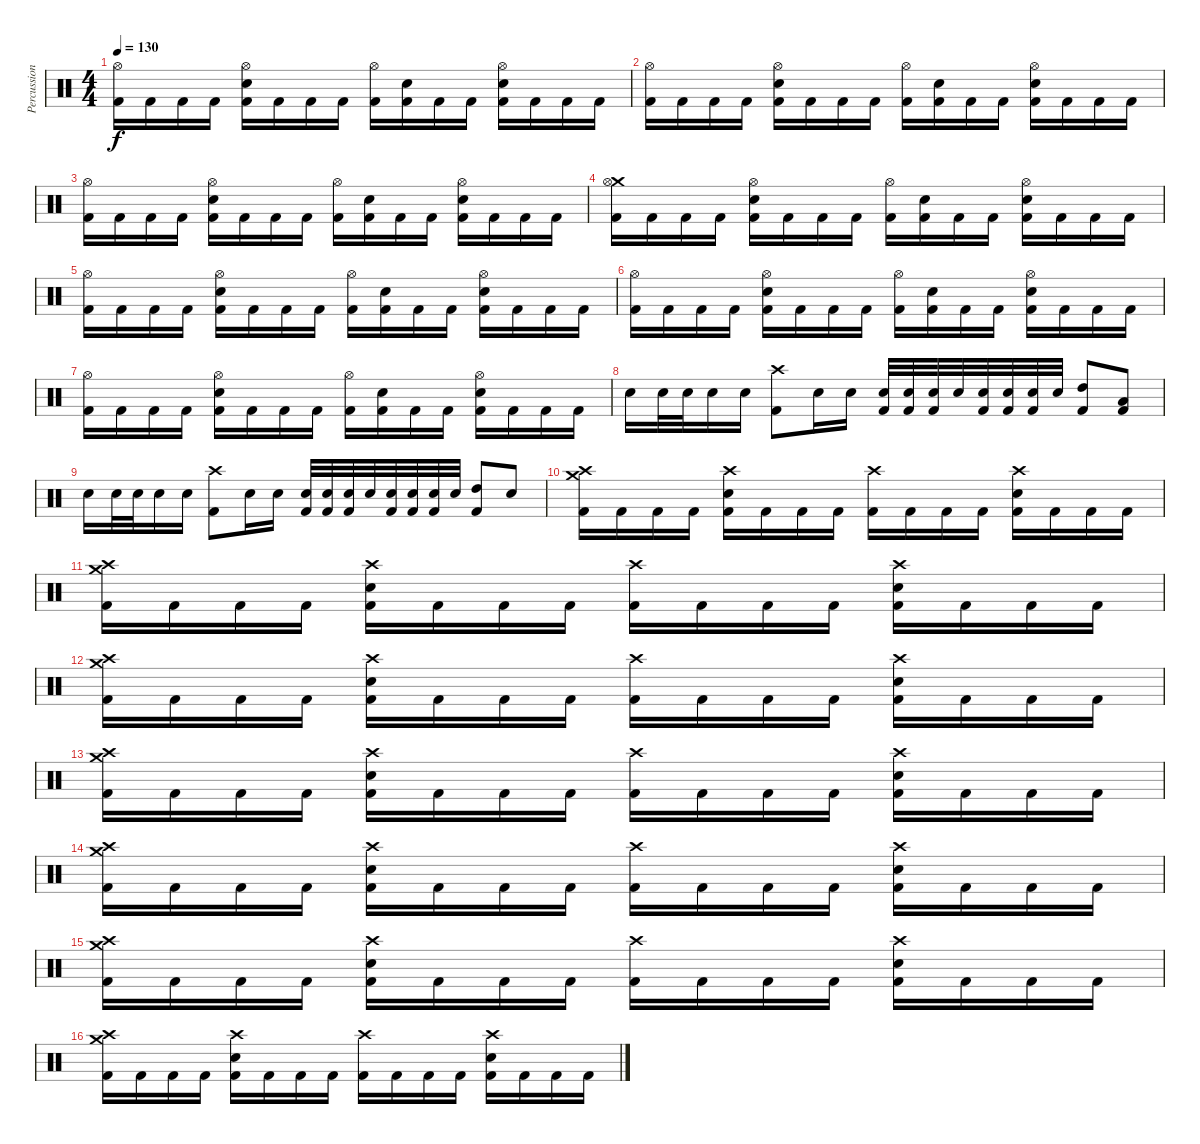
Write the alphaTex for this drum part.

\track ("Percussion" "Percussion") {instrument percussion}
\staff {score}
\articulation defaults
\ts (4 4)
\tempo 130
\clef neutral
\ks c
("Hi-Hat (open)" "Kick (hit) 2").16{dy f} "Kick (hit) 2".16 "Kick (hit) 2".16 "Kick (hit) 2".16 ("Snare (hit) 2" "Hi-Hat (open)" "Kick (hit) 2").16 "Kick (hit) 2".16 "Kick (hit) 2".16 "Kick (hit) 2".16 ("Hi-Hat (open)" "Kick (hit) 2").16 ("Snare (hit) 2" "Kick (hit) 2").16 "Kick (hit) 2".16 "Kick (hit) 2".16 ("Snare (hit) 2" "Hi-Hat (open)" "Kick (hit) 2").16 "Kick (hit) 2".16 "Kick (hit) 2".16 "Kick (hit) 2".16 |
("Hi-Hat (open)" "Kick (hit) 2").16 "Kick (hit) 2".16 "Kick (hit) 2".16 "Kick (hit) 2".16 ("Snare (hit) 2" "Hi-Hat (open)" "Kick (hit) 2").16 "Kick (hit) 2".16 "Kick (hit) 2".16 "Kick (hit) 2".16 ("Hi-Hat (open)" "Kick (hit) 2").16 ("Snare (hit) 2" "Kick (hit) 2").16 "Kick (hit) 2".16 "Kick (hit) 2".16 ("Snare (hit) 2" "Hi-Hat (open)" "Kick (hit) 2").16 "Kick (hit) 2".16 "Kick (hit) 2".16 "Kick (hit) 2".16 |
("Hi-Hat (open)" "Kick (hit) 2").16 "Kick (hit) 2".16 "Kick (hit) 2".16 "Kick (hit) 2".16 ("Snare (hit) 2" "Hi-Hat (open)" "Kick (hit) 2").16 "Kick (hit) 2".16 "Kick (hit) 2".16 "Kick (hit) 2".16 ("Hi-Hat (open)" "Kick (hit) 2").16 ("Snare (hit) 2" "Kick (hit) 2").16 "Kick (hit) 2".16 "Kick (hit) 2".16 ("Snare (hit) 2" "Hi-Hat (open)" "Kick (hit) 2").16 "Kick (hit) 2".16 "Kick (hit) 2".16 "Kick (hit) 2".16 |
("Crash medium (hit)" "Hi-Hat (open)" "Kick (hit) 2").16 "Kick (hit) 2".16 "Kick (hit) 2".16 "Kick (hit) 2".16 ("Snare (hit) 2" "Hi-Hat (open)" "Kick (hit) 2").16 "Kick (hit) 2".16 "Kick (hit) 2".16 "Kick (hit) 2".16 ("Hi-Hat (open)" "Kick (hit) 2").16 ("Snare (hit) 2" "Kick (hit) 2").16 "Kick (hit) 2".16 "Kick (hit) 2".16 ("Snare (hit) 2" "Hi-Hat (open)" "Kick (hit) 2").16 "Kick (hit) 2".16 "Kick (hit) 2".16 "Kick (hit) 2".16 |
("Hi-Hat (open)" "Kick (hit) 2").16 "Kick (hit) 2".16 "Kick (hit) 2".16 "Kick (hit) 2".16 ("Snare (hit) 2" "Hi-Hat (open)" "Kick (hit) 2").16 "Kick (hit) 2".16 "Kick (hit) 2".16 "Kick (hit) 2".16 ("Hi-Hat (open)" "Kick (hit) 2").16 ("Snare (hit) 2" "Kick (hit) 2").16 "Kick (hit) 2".16 "Kick (hit) 2".16 ("Snare (hit) 2" "Hi-Hat (open)" "Kick (hit) 2").16 "Kick (hit) 2".16 "Kick (hit) 2".16 "Kick (hit) 2".16 |
("Hi-Hat (open)" "Kick (hit) 2").16 "Kick (hit) 2".16 "Kick (hit) 2".16 "Kick (hit) 2".16 ("Snare (hit) 2" "Hi-Hat (open)" "Kick (hit) 2").16 "Kick (hit) 2".16 "Kick (hit) 2".16 "Kick (hit) 2".16 ("Hi-Hat (open)" "Kick (hit) 2").16 ("Snare (hit) 2" "Kick (hit) 2").16 "Kick (hit) 2".16 "Kick (hit) 2".16 ("Snare (hit) 2" "Hi-Hat (open)" "Kick (hit) 2").16 "Kick (hit) 2".16 "Kick (hit) 2".16 "Kick (hit) 2".16 |
("Hi-Hat (open)" "Kick (hit) 2").16 "Kick (hit) 2".16 "Kick (hit) 2".16 "Kick (hit) 2".16 ("Snare (hit) 2" "Hi-Hat (open)" "Kick (hit) 2").16 "Kick (hit) 2".16 "Kick (hit) 2".16 "Kick (hit) 2".16 ("Hi-Hat (open)" "Kick (hit) 2").16 ("Snare (hit) 2" "Kick (hit) 2").16 "Kick (hit) 2".16 "Kick (hit) 2".16 ("Snare (hit) 2" "Hi-Hat (open)" "Kick (hit) 2").16 "Kick (hit) 2".16 "Kick (hit) 2".16 "Kick (hit) 2".16 |
"Snare (hit) 2".16 "Snare (hit) 2".32 "Snare (hit) 2".32 "Snare (hit) 2".16 "Snare (hit) 2".16 ("Crash high (hit)" "Kick (hit) 2").8 "Snare (hit) 2".16 "Snare (hit) 2".16 ("Snare (hit) 2" "Kick (hit) 2").32 ("Snare (hit) 2" "Kick (hit) 2").32 ("Snare (hit) 2" "Kick (hit) 2").32 "Snare (hit)".32 ("Snare (hit) 2" "Kick (hit) 2").32 ("Snare (hit) 2" "Kick (hit) 2").32 ("Snare (hit) 2" "Kick (hit) 2").32 "Snare (hit)".32 ("High Tom (hit)" "Kick (hit) 2").8 ("Low Tom (hit)" "Kick (hit) 2").8 |
"Snare (hit) 2".16 "Snare (hit) 2".32 "Snare (hit) 2".32 "Snare (hit) 2".16 "Snare (hit) 2".16 ("Crash high (hit)" "Kick (hit) 2").8 "Snare (hit) 2".16 "Snare (hit) 2".16 ("Snare (hit) 2" "Kick (hit) 2").32 ("Snare (hit) 2" "Kick (hit) 2").32 ("Snare (hit) 2" "Kick (hit) 2").32 "Snare (hit)".32 ("Snare (hit) 2" "Kick (hit) 2").32 ("Snare (hit) 2" "Kick (hit) 2").32 ("Snare (hit) 2" "Kick (hit) 2").32 "Snare (hit)".32 ("High Tom (hit)" "Kick (hit) 2").8 "Snare (hit)".8 |
("Crash medium (hit)" "Crash high (hit)" "Kick (hit) 2").16 "Kick (hit) 2".16 "Kick (hit) 2".16 "Kick (hit) 2".16 ("Crash high (hit)" "Snare (hit) 2" "Kick (hit) 2").16 "Kick (hit) 2".16 "Kick (hit) 2".16 "Kick (hit) 2".16 ("Crash high (hit)" "Kick (hit) 2").16 "Kick (hit) 2".16 "Kick (hit) 2".16 "Kick (hit) 2".16 ("Crash high (hit)" "Snare (hit) 2" "Kick (hit) 2").16 "Kick (hit) 2".16 "Kick (hit) 2".16 "Kick (hit) 2".16 |
("Crash high (hit)" "Crash medium (hit)" "Kick (hit) 2").16 "Kick (hit) 2".16 "Kick (hit) 2".16 "Kick (hit) 2".16 ("Crash high (hit)" "Snare (hit) 2" "Kick (hit) 2").16 "Kick (hit) 2".16 "Kick (hit) 2".16 "Kick (hit) 2".16 ("Crash high (hit)" "Kick (hit) 2").16 "Kick (hit) 2".16 "Kick (hit) 2".16 "Kick (hit) 2".16 ("Crash high (hit)" "Snare (hit) 2" "Kick (hit) 2").16 "Kick (hit) 2".16 "Kick (hit) 2".16 "Kick (hit) 2".16 |
("Crash medium (hit)" "Crash high (hit)" "Kick (hit) 2").16 "Kick (hit) 2".16 "Kick (hit) 2".16 "Kick (hit) 2".16 ("Crash high (hit)" "Snare (hit) 2" "Kick (hit) 2").16 "Kick (hit) 2".16 "Kick (hit) 2".16 "Kick (hit) 2".16 ("Crash high (hit)" "Kick (hit) 2").16 "Kick (hit) 2".16 "Kick (hit) 2".16 "Kick (hit) 2".16 ("Crash high (hit)" "Snare (hit) 2" "Kick (hit) 2").16 "Kick (hit) 2".16 "Kick (hit) 2".16 "Kick (hit) 2".16 |
("Crash high (hit)" "Crash medium (hit)" "Kick (hit) 2").16 "Kick (hit) 2".16 "Kick (hit) 2".16 "Kick (hit) 2".16 ("Crash high (hit)" "Snare (hit) 2" "Kick (hit) 2").16 "Kick (hit) 2".16 "Kick (hit) 2".16 "Kick (hit) 2".16 ("Crash high (hit)" "Kick (hit) 2").16 "Kick (hit) 2".16 "Kick (hit) 2".16 "Kick (hit) 2".16 ("Crash high (hit)" "Snare (hit) 2" "Kick (hit) 2").16 "Kick (hit) 2".16 "Kick (hit) 2".16 "Kick (hit) 2".16 |
("Crash medium (hit)" "Crash high (hit)" "Kick (hit) 2").16 "Kick (hit) 2".16 "Kick (hit) 2".16 "Kick (hit) 2".16 ("Crash high (hit)" "Snare (hit) 2" "Kick (hit) 2").16 "Kick (hit) 2".16 "Kick (hit) 2".16 "Kick (hit) 2".16 ("Crash high (hit)" "Kick (hit) 2").16 "Kick (hit) 2".16 "Kick (hit) 2".16 "Kick (hit) 2".16 ("Crash high (hit)" "Snare (hit) 2" "Kick (hit) 2").16 "Kick (hit) 2".16 "Kick (hit) 2".16 "Kick (hit) 2".16 |
("Crash high (hit)" "Crash medium (hit)" "Kick (hit) 2").16 "Kick (hit) 2".16 "Kick (hit) 2".16 "Kick (hit) 2".16 ("Crash high (hit)" "Snare (hit) 2" "Kick (hit) 2").16 "Kick (hit) 2".16 "Kick (hit) 2".16 "Kick (hit) 2".16 ("Crash high (hit)" "Kick (hit) 2").16 "Kick (hit) 2".16 "Kick (hit) 2".16 "Kick (hit) 2".16 ("Crash high (hit)" "Snare (hit) 2" "Kick (hit) 2").16 "Kick (hit) 2".16 "Kick (hit) 2".16 "Kick (hit) 2".16 |
("Crash high (hit)" "Crash medium (hit)" "Kick (hit) 2").16 "Kick (hit) 2".16 "Kick (hit) 2".16 "Kick (hit) 2".16 ("Crash high (hit)" "Snare (hit) 2" "Kick (hit) 2").16 "Kick (hit) 2".16 "Kick (hit) 2".16 "Kick (hit) 2".16 ("Crash high (hit)" "Kick (hit) 2").16 "Kick (hit) 2".16 "Kick (hit) 2".16 "Kick (hit) 2".16 ("Crash high (hit)" "Snare (hit) 2" "Kick (hit) 2").16 "Kick (hit) 2".16 "Kick (hit) 2".16 "Kick (hit) 2".16
